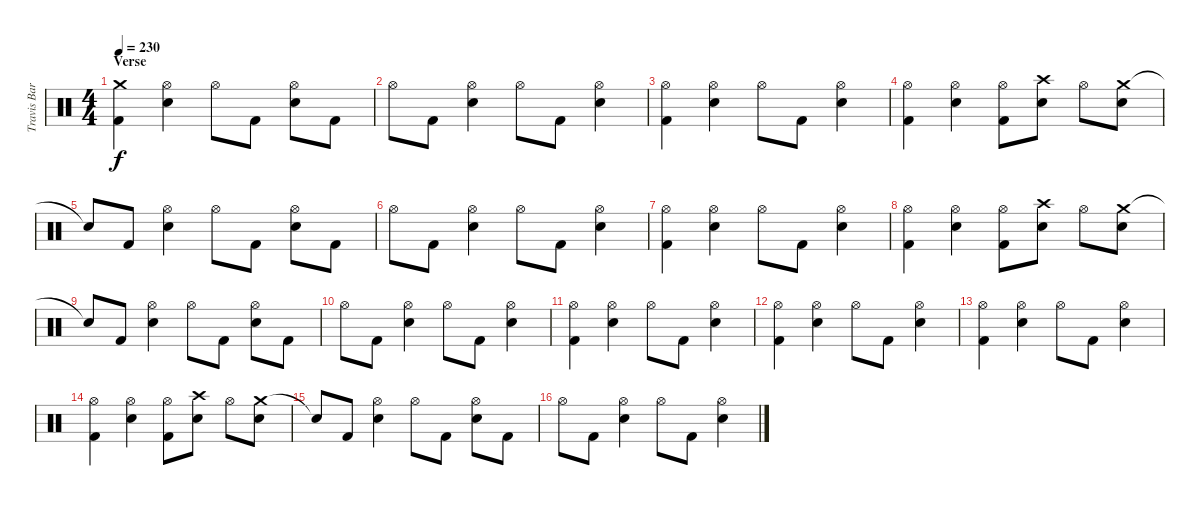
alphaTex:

\track ("Travis Barker - Drums" "Travis Bar") {instrument percussion}
\staff {score}
\articulation defaults
\ts (4 4)
\section ("" "Verse")
\tempo 230
\clef neutral
\ks c
("Crash medium (hit)" "Kick (hit) 2").4{dy f} ("Hi-Hat (open)" "Electric Snare (hit)").4 "Hi-Hat (open)".8 "Kick (hit) 2".8 ("Hi-Hat (open)" "Electric Snare (hit)").8 "Kick (hit) 2".8 |
"Hi-Hat (open)".8 "Kick (hit) 2".8 ("Hi-Hat (open)" "Electric Snare (hit)").4 "Hi-Hat (open)".8 "Kick (hit) 2".8 ("Hi-Hat (open)" "Electric Snare (hit)").4 |
("Hi-Hat (open)" "Kick (hit) 2").4 ("Hi-Hat (open)" "Electric Snare (hit)").4 "Hi-Hat (open)".8 "Kick (hit) 2".8 ("Hi-Hat (open)" "Electric Snare (hit)").4 |
("Hi-Hat (open)" "Kick (hit) 2").4 ("Hi-Hat (open)" "Electric Snare (hit)").4 ("Hi-Hat (open)" "Kick (hit) 2").8 ("Crash high (hit)" "Electric Snare (hit)").8 "Hi-Hat (open)".8 ("Crash medium (hit)" "Electric Snare (hit)").8 |
"Snare (hit)"{t}.8 "Kick (hit) 2".8 ("Hi-Hat (open)" "Electric Snare (hit)").4 "Hi-Hat (open)".8 "Kick (hit) 2".8 ("Hi-Hat (open)" "Electric Snare (hit)").8 "Kick (hit) 2".8 |
"Hi-Hat (open)".8 "Kick (hit) 2".8 ("Hi-Hat (open)" "Electric Snare (hit)").4 "Hi-Hat (open)".8 "Kick (hit) 2".8 ("Hi-Hat (open)" "Electric Snare (hit)").4 |
("Hi-Hat (open)" "Kick (hit) 2").4 ("Hi-Hat (open)" "Electric Snare (hit)").4 "Hi-Hat (open)".8 "Kick (hit) 2".8 ("Hi-Hat (open)" "Electric Snare (hit)").4 |
("Hi-Hat (open)" "Kick (hit) 2").4 ("Hi-Hat (open)" "Electric Snare (hit)").4 ("Hi-Hat (open)" "Kick (hit) 2").8 ("Crash high (hit)" "Electric Snare (hit)").8 "Hi-Hat (open)".8 ("Crash medium (hit)" "Electric Snare (hit)").8 |
"Snare (hit)"{t}.8 "Kick (hit) 2".8 ("Hi-Hat (open)" "Electric Snare (hit)").4 "Hi-Hat (open)".8 "Kick (hit) 2".8 ("Hi-Hat (open)" "Electric Snare (hit)").8 "Kick (hit) 2".8 |
"Hi-Hat (open)".8 "Kick (hit) 2".8 ("Hi-Hat (open)" "Electric Snare (hit)").4 "Hi-Hat (open)".8 "Kick (hit) 2".8 ("Hi-Hat (open)" "Electric Snare (hit)").4 |
("Hi-Hat (open)" "Kick (hit) 2").4 ("Hi-Hat (open)" "Electric Snare (hit)").4 "Hi-Hat (open)".8 "Kick (hit) 2".8 ("Hi-Hat (open)" "Electric Snare (hit)").4 |
("Hi-Hat (open)" "Kick (hit) 2").4 ("Hi-Hat (open)" "Electric Snare (hit)").4 "Hi-Hat (open)".8 "Kick (hit) 2".8 ("Hi-Hat (open)" "Electric Snare (hit)").4 |
("Hi-Hat (open)" "Kick (hit) 2").4 ("Hi-Hat (open)" "Electric Snare (hit)").4 "Hi-Hat (open)".8 "Kick (hit) 2".8 ("Hi-Hat (open)" "Electric Snare (hit)").4 |
("Hi-Hat (open)" "Kick (hit) 2").4 ("Hi-Hat (open)" "Electric Snare (hit)").4 ("Hi-Hat (open)" "Kick (hit) 2").8 ("Crash high (hit)" "Electric Snare (hit)").8 "Hi-Hat (open)".8 ("Crash medium (hit)" "Electric Snare (hit)").8 |
"Snare (hit)"{t}.8 "Kick (hit) 2".8 ("Hi-Hat (open)" "Electric Snare (hit)").4 "Hi-Hat (open)".8 "Kick (hit) 2".8 ("Hi-Hat (open)" "Electric Snare (hit)").8 "Kick (hit) 2".8 |
"Hi-Hat (open)".8 "Kick (hit) 2".8 ("Hi-Hat (open)" "Electric Snare (hit)").4 "Hi-Hat (open)".8 "Kick (hit) 2".8 ("Hi-Hat (open)" "Electric Snare (hit)").4
